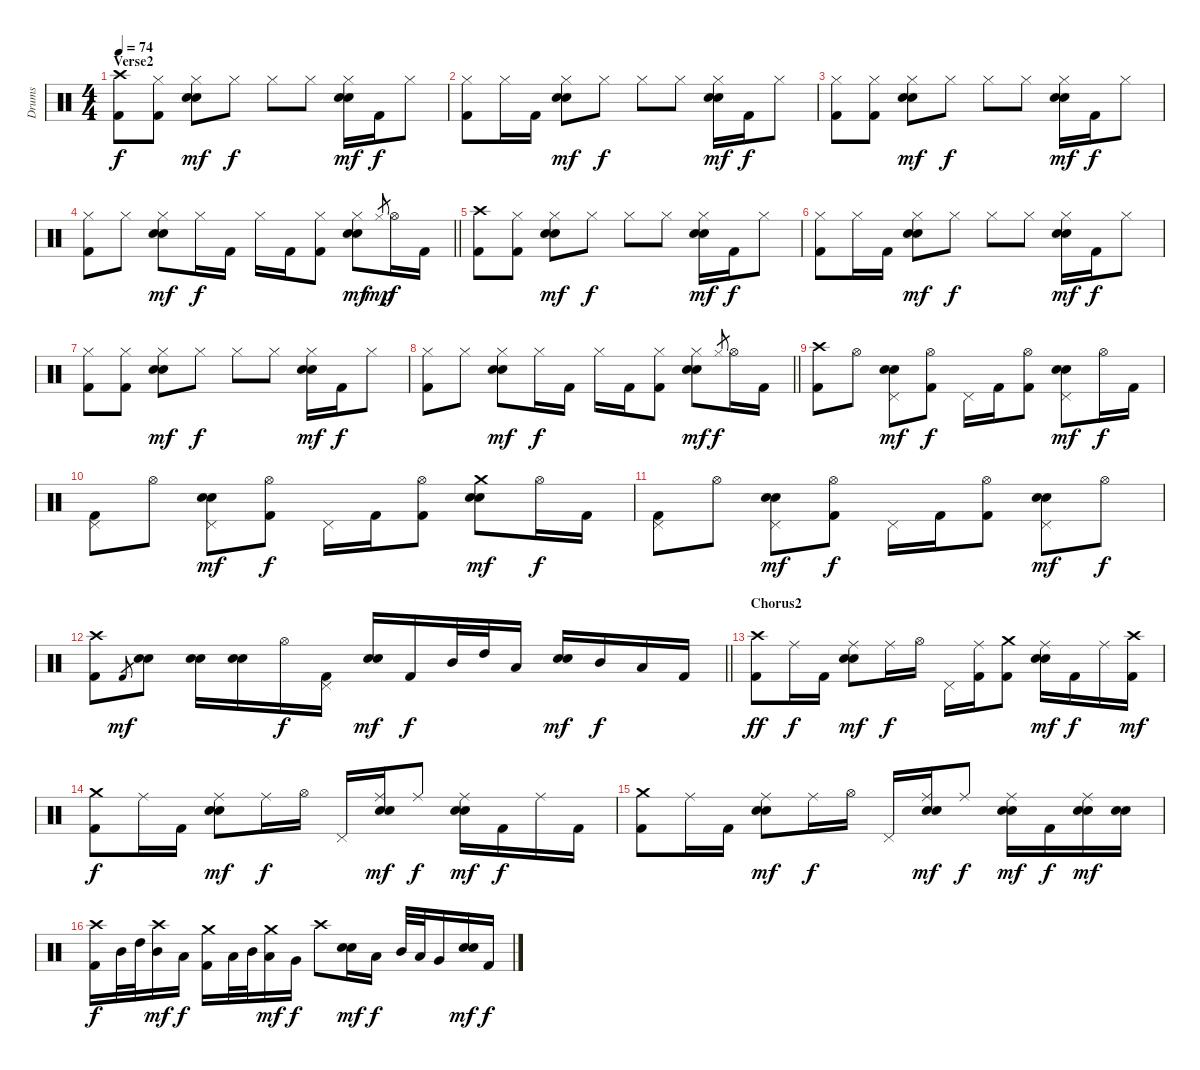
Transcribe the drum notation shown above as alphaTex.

\track ("Drums" "Drums") {instrument percussion}
\staff {score}
\articulation defaults
\ts (4 4)
\section ("" "Verse2")
\tempo 74
\clef neutral
\ks c
("Crash high (hit)" "Kick (hit) 2").8{dy f} ("Hi-Hat (closed)" "Kick (hit) 2").8 ("Hi-Hat (closed)" "Electric Snare (hit)" "Snare (hit) 2").8{dy mf} "Hi-Hat (closed)".8{dy f} "Hi-Hat (closed)".8 "Hi-Hat (closed)".8 ("Hi-Hat (closed)" "Electric Snare (hit)" "Snare (hit) 2").16{dy mf} "Kick (hit) 2".16{dy f} "Hi-Hat (closed)".8 |
("Hi-Hat (closed)" "Kick (hit) 2").8 "Hi-Hat (closed)".16 "Kick (hit) 2".16 ("Hi-Hat (closed)" "Electric Snare (hit)" "Snare (hit) 2").8{dy mf} "Hi-Hat (closed)".8{dy f} "Hi-Hat (closed)".8 "Hi-Hat (closed)".8 ("Hi-Hat (closed)" "Electric Snare (hit)" "Snare (hit) 2").16{dy mf} "Kick (hit) 2".16{dy f} "Hi-Hat (closed)".8 |
("Hi-Hat (closed)" "Kick (hit) 2").8 ("Hi-Hat (closed)" "Kick (hit) 2").8 ("Hi-Hat (closed)" "Electric Snare (hit)" "Snare (hit) 2").8{dy mf} "Hi-Hat (closed)".8{dy f} "Hi-Hat (closed)".8 "Hi-Hat (closed)".8 ("Hi-Hat (closed)" "Electric Snare (hit)" "Snare (hit) 2").16{dy mf} "Kick (hit) 2".16{dy f} "Hi-Hat (closed)".8 |
\barLineRight lightlight
("Hi-Hat (closed)" "Kick (hit) 2").8 "Hi-Hat (closed)".8 ("Hi-Hat (closed)" "Electric Snare (hit)" "Snare (hit) 2").8{dy mf} "Hi-Hat (closed)".16{dy f} "Kick (hit) 2".16 "Hi-Hat (closed)".16 "Kick (hit) 2".16 ("Hi-Hat (closed)" "Kick (hit) 2").8 ("Hi-Hat (closed)" "Electric Snare (hit)" "Snare (hit) 2").8{dy mf} "Hi-Hat (closed)".8{gr dy mp} "Hi-Hat (open)".16{dy f} "Kick (hit) 2".16 |
("Crash high (hit)" "Kick (hit) 2").8 ("Hi-Hat (closed)" "Kick (hit) 2").8 ("Hi-Hat (closed)" "Electric Snare (hit)" "Snare (hit) 2").8{dy mf} "Hi-Hat (closed)".8{dy f} "Hi-Hat (closed)".8 "Hi-Hat (closed)".8 ("Hi-Hat (closed)" "Electric Snare (hit)" "Snare (hit) 2").16{dy mf} "Kick (hit) 2".16{dy f} "Hi-Hat (closed)".8 |
("Hi-Hat (closed)" "Kick (hit) 2").8 "Hi-Hat (closed)".16 "Kick (hit) 2".16 ("Hi-Hat (closed)" "Electric Snare (hit)" "Snare (hit) 2").8{dy mf} "Hi-Hat (closed)".8{dy f} "Hi-Hat (closed)".8 "Hi-Hat (closed)".8 ("Hi-Hat (closed)" "Electric Snare (hit)" "Snare (hit) 2").16{dy mf} "Kick (hit) 2".16{dy f} "Hi-Hat (closed)".8 |
("Hi-Hat (closed)" "Kick (hit) 2").8 ("Hi-Hat (closed)" "Kick (hit) 2").8 ("Hi-Hat (closed)" "Electric Snare (hit)" "Snare (hit) 2").8{dy mf} "Hi-Hat (closed)".8{dy f} "Hi-Hat (closed)".8 "Hi-Hat (closed)".8 ("Hi-Hat (closed)" "Electric Snare (hit)" "Snare (hit) 2").16{dy mf} "Kick (hit) 2".16{dy f} "Hi-Hat (closed)".8 |
\barLineRight lightlight
("Hi-Hat (closed)" "Kick (hit) 2").8 "Hi-Hat (closed)".8 ("Hi-Hat (closed)" "Electric Snare (hit)" "Snare (hit) 2").8{dy mf} "Hi-Hat (closed)".16{dy f} "Kick (hit) 2".16 "Hi-Hat (closed)".16 "Kick (hit) 2".16 ("Hi-Hat (closed)" "Kick (hit) 2").8 ("Hi-Hat (closed)" "Electric Snare (hit)" "Snare (hit) 2").8{dy mf} "Hi-Hat (closed)".8{gr dy f} "Hi-Hat (open)".16 "Kick (hit) 2".16 |
("Crash high (hit)" "Kick (hit) 2").8 "Hi-Hat (open)".8 ("Pedal Hi-Hat (hit)" "Electric Snare (hit)" "Snare (hit) 2").8{dy mf} ("Hi-Hat (open)" "Kick (hit) 2").8{dy f} "Pedal Hi-Hat (hit)".16 "Kick (hit) 2".16 ("Hi-Hat (open)" "Kick (hit) 2").8 ("Pedal Hi-Hat (hit)" "Electric Snare (hit)" "Snare (hit) 2").8{dy mf} "Hi-Hat (open)".16{dy f} "Kick (hit) 2".16 |
("Pedal Hi-Hat (hit)" "Kick (hit) 2").8 "Hi-Hat (open)".8 ("Pedal Hi-Hat (hit)" "Electric Snare (hit)" "Snare (hit) 2").8{dy mf} ("Hi-Hat (open)" "Kick (hit) 2").8{dy f} "Pedal Hi-Hat (hit)".16 "Kick (hit) 2".16 ("Hi-Hat (open)" "Kick (hit) 2").8 ("Crash medium (hit)" "Electric Snare (hit)" "Snare (hit) 2").8{dy mf} "Hi-Hat (open)".16{dy f} "Kick (hit) 2".16 |
("Pedal Hi-Hat (hit)" "Kick (hit) 2").8 "Hi-Hat (open)".8 ("Pedal Hi-Hat (hit)" "Electric Snare (hit)" "Snare (hit) 2").8{dy mf} ("Hi-Hat (open)" "Kick (hit) 2").8{dy f} "Pedal Hi-Hat (hit)".16 "Kick (hit) 2".16 ("Hi-Hat (open)" "Kick (hit) 2").8 ("Pedal Hi-Hat (hit)" "Electric Snare (hit)" "Snare (hit) 2").8{dy mf} "Hi-Hat (open)".8{dy f} |
\barLineRight lightlight
("Crash high (hit)" "Kick (hit) 2").8 "Kick (hit) 2".8{gr dy mf} ("Electric Snare (hit)" "Snare (hit) 2").8 ("Electric Snare (hit)" "Snare (hit) 2").16 ("Electric Snare (hit)" "Snare (hit) 2").16 "Hi-Hat (open)".16{dy f} ("Pedal Hi-Hat (hit)" "Kick (hit) 2").16 ("Electric Snare (hit)" "Snare (hit) 2").16{dy mf} "Kick (hit) 2".16{dy f} "Mid Tom (hit)".32 "High Tom (hit)".32 "Low Tom (hit)".16 ("Electric Snare (hit)" "Snare (hit) 2").16{dy mf} "Mid Tom (hit)".16{dy f} "Low Tom (hit)".16 "Kick (hit) 2".16 |
\section ("" "Chorus2")
("Crash high (hit)" "Kick (hit) 2").8{dy ff} "Ride (middle)".16{dy f} "Kick (hit) 2".16 ("Ride (middle)" "Electric Snare (hit)" "Snare (hit) 2").8{dy mf} "Ride (middle)".16{dy f} "Hi-Hat (open)".16 "Pedal Hi-Hat (hit)".16 ("Ride (middle)" "Kick (hit) 2").16 ("Crash medium (hit)" "Kick (hit) 2").8 ("Ride (middle)" "Electric Snare (hit)" "Snare (hit) 2").16{dy mf} "Kick (hit) 2".16{dy f} "Ride (middle)".16 ("Crash high (hit)" "Kick (hit) 2").16{dy mf} |
("Crash medium (hit)" "Kick (hit) 2").8{dy f} "Ride (middle)".16 "Kick (hit) 2".16 ("Ride (middle)" "Electric Snare (hit)" "Snare (hit) 2").8{dy mf} "Ride (middle)".16{dy f} "Hi-Hat (open)".16 "Pedal Hi-Hat (hit)".16 ("Ride (middle)" "Electric Snare (hit)" "Snare (hit) 2").16{dy mf} "Ride (middle)".8{dy f} ("Ride (middle)" "Electric Snare (hit)" "Snare (hit) 2").16{dy mf} "Kick (hit) 2".16{dy f} "Ride (middle)".16 "Kick (hit) 2".16 |
("Crash medium (hit)" "Kick (hit) 2").8 "Ride (middle)".16 "Kick (hit) 2".16 ("Ride (middle)" "Electric Snare (hit)" "Snare (hit) 2").8{dy mf} "Ride (middle)".16{dy f} "Hi-Hat (open)".16 "Pedal Hi-Hat (hit)".16 ("Ride (middle)" "Electric Snare (hit)" "Snare (hit) 2").16{dy mf} "Ride (middle)".8{dy f} ("Ride (middle)" "Electric Snare (hit)" "Snare (hit) 2").16{dy mf} "Kick (hit) 2".16{dy f} ("Ride (middle)" "Electric Snare (hit)" "Snare (hit) 2").16{dy mf} ("Electric Snare (hit)" "Snare (hit) 2").16 |
("Crash high (hit)" "Kick (hit) 2").16{dy f} "Mid Tom (hit)".32 "High Tom (hit)".32 ("Crash high (hit)" "Mid Tom (hit)").16{dy mf} "Low Tom (hit)".16{dy f} ("Crash medium (hit)" "Kick (hit) 2").16 "Low Tom (hit)".32 "Mid Tom (hit)".32 ("Crash medium (hit)" "Low Tom (hit)").16{dy mf} "Very Low Tom (hit)".16{dy f} "Crash high (hit)".8 ("Electric Snare (hit)" "Snare (hit) 2").16{dy mf} "Low Tom (hit)".16{dy f} "Mid Tom (hit)".32 "Low Tom (hit)".32 "Very Low Tom (hit)".16 ("Electric Snare (hit)" "Snare (hit) 2").16{dy mf} "Kick (hit) 2".16{dy f}
